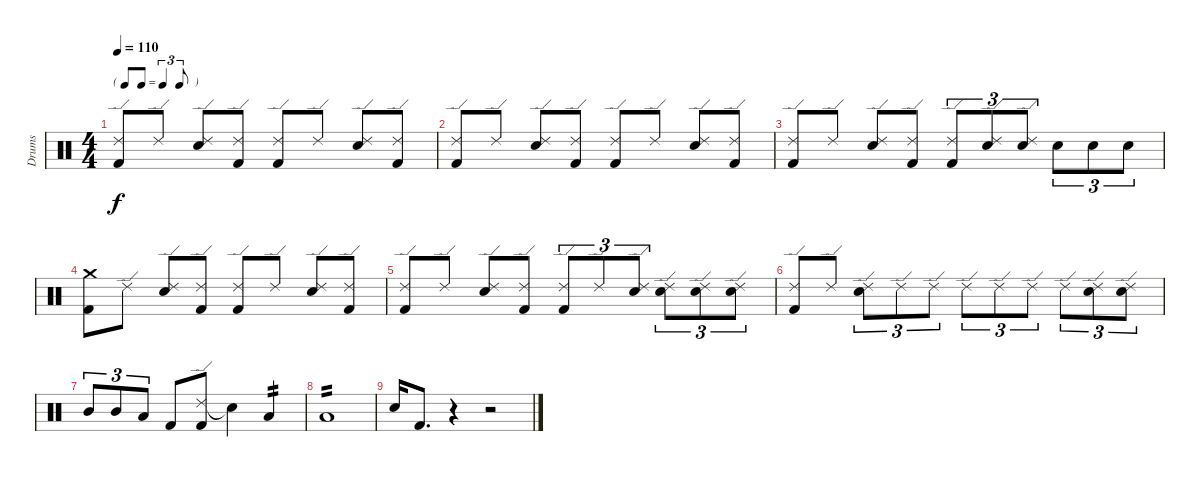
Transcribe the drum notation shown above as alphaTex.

\track ("Drums" "Drums") {instrument percussion}
\staff {score}
\articulation defaults
\ts (4 4)
\tf triplet8th
\tempo 110
\clef neutral
\ks c
("Ride (edge) 2" "Kick (hit) 2").8{dy f} "Ride (edge) 2".8 ("Ride (edge) 2" "Snare (hit) 2").8 ("Ride (edge) 2" "Kick (hit) 2").8 ("Ride (edge) 2" "Kick (hit) 2").8 "Ride (edge) 2".8 ("Ride (edge) 2" "Snare (hit) 2").8 ("Ride (edge) 2" "Kick (hit) 2").8 |
("Ride (edge) 2" "Kick (hit) 2").8 "Ride (edge) 2".8 ("Ride (edge) 2" "Snare (hit) 2").8 ("Ride (edge) 2" "Kick (hit) 2").8 ("Ride (edge) 2" "Kick (hit) 2").8 "Ride (edge) 2".8 ("Ride (edge) 2" "Snare (hit) 2").8 ("Ride (edge) 2" "Kick (hit) 2").8 |
("Ride (edge) 2" "Kick (hit) 2").8 "Ride (edge) 2".8 ("Ride (edge) 2" "Snare (hit) 2").8 ("Ride (edge) 2" "Kick (hit) 2").8 ("Ride (edge) 2" "Kick (hit) 2").8{tu (3 2)} ("Ride (edge) 2" "Snare (hit) 2").8{tu (3 2)} ("Ride (edge) 2" "Snare (hit) 2").8{tu (3 2)} "Snare (hit) 2".8{tu (3 2)} "Snare (hit) 2".8{tu (3 2)} "Snare (hit) 2".8{tu (3 2)} |
("Crash medium (hit)" "Kick (hit) 2").8 "Ride (edge) 2".8 ("Ride (edge) 2" "Snare (hit) 2").8 ("Ride (edge) 2" "Kick (hit) 2").8 ("Ride (edge) 2" "Kick (hit) 2").8 "Ride (edge) 2".8 ("Ride (edge) 2" "Snare (hit) 2").8 ("Ride (edge) 2" "Kick (hit) 2").8 |
("Ride (edge) 2" "Kick (hit) 2").8 "Ride (edge) 2".8 ("Ride (edge) 2" "Snare (hit) 2").8 ("Ride (edge) 2" "Kick (hit) 2").8 ("Ride (edge) 2" "Kick (hit) 2").8{tu (3 2)} "Ride (edge) 2".8{tu (3 2)} ("Ride (edge) 2" "Snare (hit) 2").8{tu (3 2)} ("Ride (edge) 2" "Snare (hit) 2").8{tu (3 2)} ("Ride (edge) 2" "Snare (hit) 2").8{tu (3 2)} ("Ride (edge) 2" "Snare (hit) 2").8{tu (3 2)} |
("Ride (edge) 2" "Kick (hit) 2").8 "Ride (edge) 2".8 ("Ride (edge) 2" "Snare (hit) 2").8{tu (3 2)} "Ride (edge) 2".8{tu (3 2)} "Ride (edge) 2".8{tu (3 2)} "Ride (edge) 2".8{tu (3 2)} "Ride (edge) 2".8{tu (3 2)} "Ride (edge) 2".8{tu (3 2)} "Ride (edge) 2".8{tu (3 2)} ("Ride (edge) 2" "Snare (hit) 2").8{tu (3 2)} ("Ride (edge) 2" "Snare (hit) 2").8{tu (3 2)} |
"Mid Tom (hit)".8{tu (3 2)} "Mid Tom (hit)".8{tu (3 2)} "Low Tom (hit)".8{tu (3 2)} "Kick (hit) 2".8 ("Ride (edge) 2" "Kick (hit) 2").8 "Snare (hit)"{t}.4 "Low Tom (hit)".4{tp 2} |
"Low Tom (hit)".1{tp 2} |
"Snare (hit) 2".16 "Kick (hit) 2".8{d} r.4 r.2
